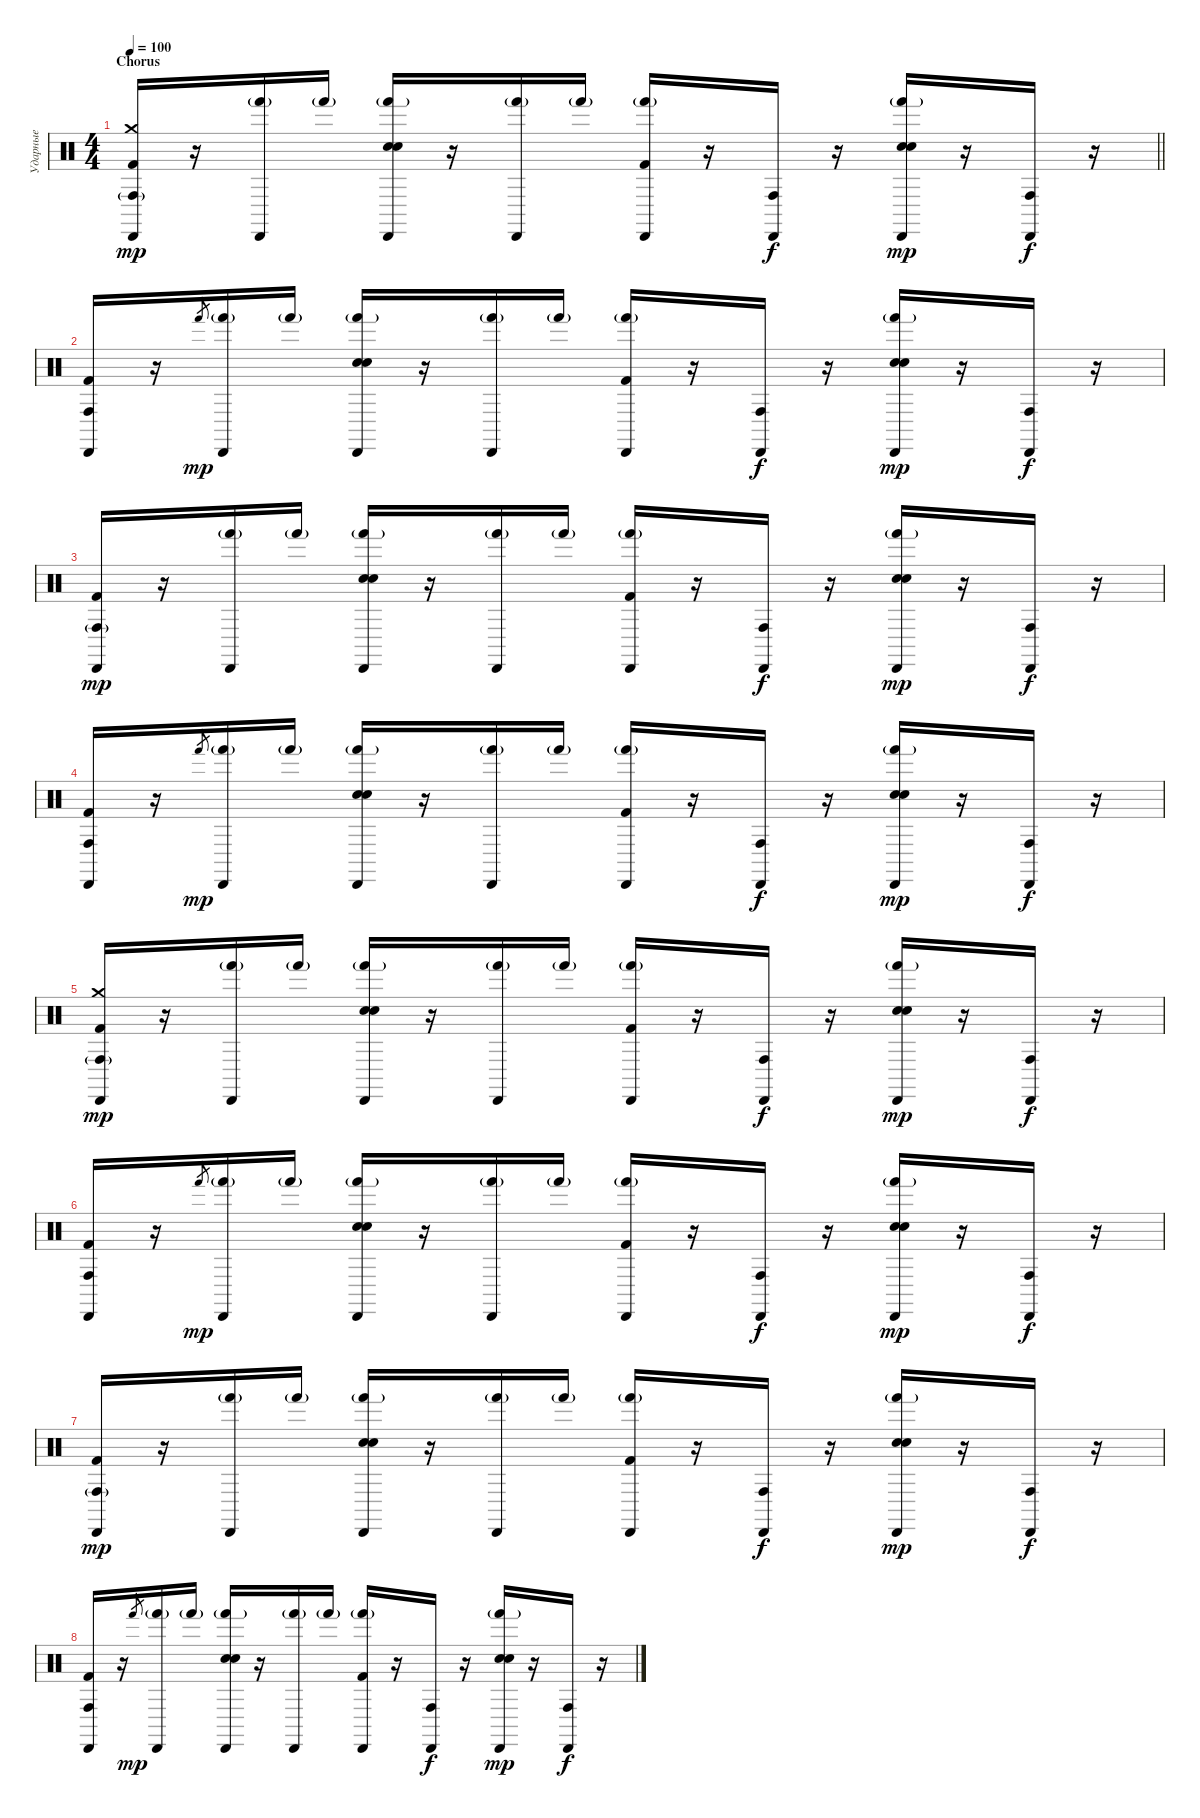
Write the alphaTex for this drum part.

\track ("Ударные" "Ударные") {instrument percussion}
\staff {score}
\articulation defaults
\ts (4 4)
\section ("" "Chorus")
\tempo 100
\clef neutral
\barLineRight lightlight
\ks c
("Crash medium (hit)" "Kick (hit) 2" "Conga high (hit)"{g} "Cabasa (hit)").16{dy mp} r.16 ("Hand (hit)"{g} "Cabasa (hit)").16 "Hand (hit)"{g}.16 ("Hand Clap (hit)" "Snare (hit) 2" "Hand (hit)"{g} "Cabasa (hit)").16 r.16 ("Hand (hit)"{g} "Cabasa (hit)").16 "Hand (hit)"{g}.16 ("Kick (hit) 2" "Hand (hit)"{g} "Cabasa (hit)").16 r.16 ("Conga high (hit)" "Cabasa (hit)").16{dy f} r.16 ("Hand Clap (hit)" "Snare (hit) 2" "Hand (hit)"{g} "Cabasa (hit)").16{dy mp} r.16 ("Conga high (hit)" "Cabasa (hit)").16{dy f} r.16 |
("Kick (hit) 2" "Conga high (hit)" "Cabasa (hit)").16 r.16 "Hand (hit)".8{gr dy mp} ("Hand (hit)"{g} "Cabasa (hit)").16 "Hand (hit)"{g}.16 ("Hand Clap (hit)" "Snare (hit) 2" "Hand (hit)"{g} "Cabasa (hit)").16 r.16 ("Hand (hit)"{g} "Cabasa (hit)").16 "Hand (hit)"{g}.16 ("Kick (hit) 2" "Hand (hit)"{g} "Cabasa (hit)").16 r.16 ("Conga high (hit)" "Cabasa (hit)").16{dy f} r.16 ("Hand Clap (hit)" "Snare (hit) 2" "Hand (hit)"{g} "Cabasa (hit)").16{dy mp} r.16 ("Conga high (hit)" "Cabasa (hit)").16{dy f} r.16 |
("Kick (hit) 2" "Conga high (hit)"{g} "Cabasa (hit)").16{dy mp} r.16 ("Hand (hit)"{g} "Cabasa (hit)").16 "Hand (hit)"{g}.16 ("Hand Clap (hit)" "Snare (hit) 2" "Hand (hit)"{g} "Cabasa (hit)").16 r.16 ("Hand (hit)"{g} "Cabasa (hit)").16 "Hand (hit)"{g}.16 ("Kick (hit) 2" "Hand (hit)"{g} "Cabasa (hit)").16 r.16 ("Conga high (hit)" "Cabasa (hit)").16{dy f} r.16 ("Hand Clap (hit)" "Snare (hit) 2" "Hand (hit)"{g} "Cabasa (hit)").16{dy mp} r.16 ("Conga high (hit)" "Cabasa (hit)").16{dy f} r.16 |
("Kick (hit) 2" "Conga high (hit)" "Cabasa (hit)").16 r.16 "Hand (hit)".8{gr dy mp} ("Hand (hit)"{g} "Cabasa (hit)").16 "Hand (hit)"{g}.16 ("Hand Clap (hit)" "Snare (hit) 2" "Hand (hit)"{g} "Cabasa (hit)").16 r.16 ("Hand (hit)"{g} "Cabasa (hit)").16 "Hand (hit)"{g}.16 ("Kick (hit) 2" "Hand (hit)"{g} "Cabasa (hit)").16 r.16 ("Conga high (hit)" "Cabasa (hit)").16{dy f} r.16 ("Hand Clap (hit)" "Snare (hit) 2" "Hand (hit)"{g} "Cabasa (hit)").16{dy mp} r.16 ("Conga high (hit)" "Cabasa (hit)").16{dy f} r.16 |
("Crash medium (hit)" "Kick (hit) 2" "Conga high (hit)"{g} "Cabasa (hit)").16{dy mp} r.16 ("Hand (hit)"{g} "Cabasa (hit)").16 "Hand (hit)"{g}.16 ("Hand Clap (hit)" "Snare (hit) 2" "Hand (hit)"{g} "Cabasa (hit)").16 r.16 ("Hand (hit)"{g} "Cabasa (hit)").16 "Hand (hit)"{g}.16 ("Kick (hit) 2" "Hand (hit)"{g} "Cabasa (hit)").16 r.16 ("Conga high (hit)" "Cabasa (hit)").16{dy f} r.16 ("Hand Clap (hit)" "Snare (hit) 2" "Hand (hit)"{g} "Cabasa (hit)").16{dy mp} r.16 ("Conga high (hit)" "Cabasa (hit)").16{dy f} r.16 |
("Kick (hit) 2" "Conga high (hit)" "Cabasa (hit)").16 r.16 "Hand (hit)".8{gr dy mp} ("Hand (hit)"{g} "Cabasa (hit)").16 "Hand (hit)"{g}.16 ("Hand Clap (hit)" "Snare (hit) 2" "Hand (hit)"{g} "Cabasa (hit)").16 r.16 ("Hand (hit)"{g} "Cabasa (hit)").16 "Hand (hit)"{g}.16 ("Kick (hit) 2" "Hand (hit)"{g} "Cabasa (hit)").16 r.16 ("Conga high (hit)" "Cabasa (hit)").16{dy f} r.16 ("Hand Clap (hit)" "Snare (hit) 2" "Hand (hit)"{g} "Cabasa (hit)").16{dy mp} r.16 ("Conga high (hit)" "Cabasa (hit)").16{dy f} r.16 |
("Kick (hit) 2" "Conga high (hit)"{g} "Cabasa (hit)").16{dy mp} r.16 ("Hand (hit)"{g} "Cabasa (hit)").16 "Hand (hit)"{g}.16 ("Hand Clap (hit)" "Snare (hit) 2" "Hand (hit)"{g} "Cabasa (hit)").16 r.16 ("Hand (hit)"{g} "Cabasa (hit)").16 "Hand (hit)"{g}.16 ("Kick (hit) 2" "Hand (hit)"{g} "Cabasa (hit)").16 r.16 ("Conga high (hit)" "Cabasa (hit)").16{dy f} r.16 ("Hand Clap (hit)" "Snare (hit) 2" "Hand (hit)"{g} "Cabasa (hit)").16{dy mp} r.16 ("Conga high (hit)" "Cabasa (hit)").16{dy f} r.16 |
("Kick (hit) 2" "Conga high (hit)" "Cabasa (hit)").16 r.16 "Hand (hit)".8{gr dy mp} ("Hand (hit)"{g} "Cabasa (hit)").16 "Hand (hit)"{g}.16 ("Hand Clap (hit)" "Snare (hit) 2" "Hand (hit)"{g} "Cabasa (hit)").16 r.16 ("Hand (hit)"{g} "Cabasa (hit)").16 "Hand (hit)"{g}.16 ("Kick (hit) 2" "Hand (hit)"{g} "Cabasa (hit)").16 r.16 ("Conga high (hit)" "Cabasa (hit)").16{dy f} r.16 ("Hand Clap (hit)" "Snare (hit) 2" "Hand (hit)"{g} "Cabasa (hit)").16{dy mp} r.16 ("Conga high (hit)" "Cabasa (hit)").16{dy f} r.16
